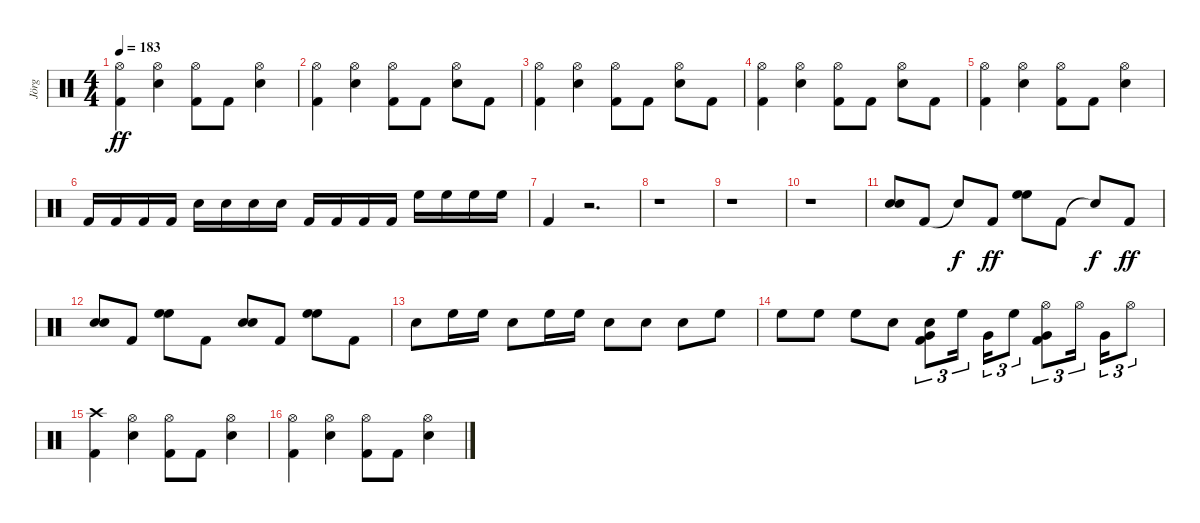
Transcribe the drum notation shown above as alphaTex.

\track ("Jörg" "Jörg") {instrument percussion}
\staff {score}
\articulation defaults
\ts (4 4)
\tempo 183
\clef neutral
\ks c
("Kick (hit) 2" "Hi-Hat (open)").4{dy ff} ("Snare (hit) 2" "Hi-Hat (open)").4 ("Kick (hit) 2" "Hi-Hat (open)").8 "Kick (hit) 2".8 ("Snare (hit) 2" "Hi-Hat (open)").4 |
("Kick (hit) 2" "Hi-Hat (open)").4 ("Snare (hit) 2" "Hi-Hat (open)").4 ("Kick (hit) 2" "Hi-Hat (open)").8 "Kick (hit) 2".8 ("Snare (hit) 2" "Hi-Hat (open)").8 "Kick (hit) 2".8 |
("Kick (hit) 2" "Hi-Hat (open)").4 ("Snare (hit) 2" "Hi-Hat (open)").4 ("Kick (hit) 2" "Hi-Hat (open)").8 "Kick (hit) 2".8 ("Snare (hit) 2" "Hi-Hat (open)").8 "Kick (hit) 2".8 |
("Kick (hit) 2" "Hi-Hat (open)").4 ("Snare (hit) 2" "Hi-Hat (open)").4 ("Kick (hit) 2" "Hi-Hat (open)").8 "Kick (hit) 2".8 ("Snare (hit) 2" "Hi-Hat (open)").8 "Kick (hit) 2".8 |
("Kick (hit) 2" "Hi-Hat (open)").4 ("Snare (hit) 2" "Hi-Hat (open)").4 ("Kick (hit) 2" "Hi-Hat (open)").8 "Kick (hit) 2".8 ("Snare (hit) 2" "Hi-Hat (open)").4 |
"Kick (hit) 2".16 "Kick (hit) 2".16 "Kick (hit) 2".16 "Kick (hit) 2".16 "Snare (hit) 2".16 "Snare (hit) 2".16 "Snare (hit) 2".16 "Snare (hit) 2".16 "Kick (hit) 2".16 "Kick (hit) 2".16 "Kick (hit) 2".16 "Kick (hit) 2".16 "High Floor Tom (hit)".16 "High Floor Tom (hit)".16 "High Floor Tom (hit)".16 "High Floor Tom (hit)".16 |
"Kick (hit) 2".4 r.2{d} |
r.1 |
r.1 |
r.1 |
("Snare (hit) 2" "Snare (hit) 2").8 "Kick (hit) 2".8 "Snare (hit)"{t}.8{dy f} "Kick (hit) 2".8{dy ff} ("High Floor Tom (hit)" "High Floor Tom (hit)").8 "Kick (hit) 2".8 "Snare (hit)"{t}.8{dy f} "Kick (hit) 2".8{dy ff} |
("Snare (hit) 2" "Snare (hit) 2").8 "Kick (hit) 2".8 ("High Floor Tom (hit)" "High Floor Tom (hit)").8 "Kick (hit) 2".8 ("Snare (hit) 2" "Snare (hit) 2").8 "Kick (hit) 2".8 ("High Floor Tom (hit)" "High Floor Tom (hit)").8 "Kick (hit) 2".8 |
"Snare (hit) 2".8 "High Floor Tom (hit)".16 "High Floor Tom (hit)".16 "Snare (hit) 2".8 "High Floor Tom (hit)".16 "High Floor Tom (hit)".16 "Snare (hit) 2".8 "Snare (hit) 2".8 "Snare (hit) 2".8 "High Floor Tom (hit)".8 |
"High Floor Tom (hit)".8 "High Floor Tom (hit)".8 "High Floor Tom (hit)".8 "Snare (hit) 2".8 ("Snare (hit) 2" "Very Low Tom (hit)" "Kick (hit) 2").8{tu (3 2)} "High Floor Tom (hit)".16{tu (3 2)} "Very Low Tom (hit)".16{tu (3 2)} "High Floor Tom (hit)".8{tu (3 2)} ("Hi-Hat (open)" "Very Low Tom (hit)" "Kick (hit) 2").8{tu (3 2)} "Hi-Hat (open)".16{tu (3 2)} "Very Low Tom (hit)".16{tu (3 2)} "Hi-Hat (open)".8{tu (3 2)} |
("Kick (hit) 2" "Crash high (hit)").4 ("Snare (hit) 2" "Hi-Hat (open)").4 ("Kick (hit) 2" "Hi-Hat (open)").8 "Kick (hit) 2".8 ("Snare (hit) 2" "Hi-Hat (open)").4 |
("Kick (hit) 2" "Hi-Hat (open)").4 ("Snare (hit) 2" "Hi-Hat (open)").4 ("Kick (hit) 2" "Hi-Hat (open)").8 "Kick (hit) 2".8 ("Snare (hit) 2" "Hi-Hat (open)").4
